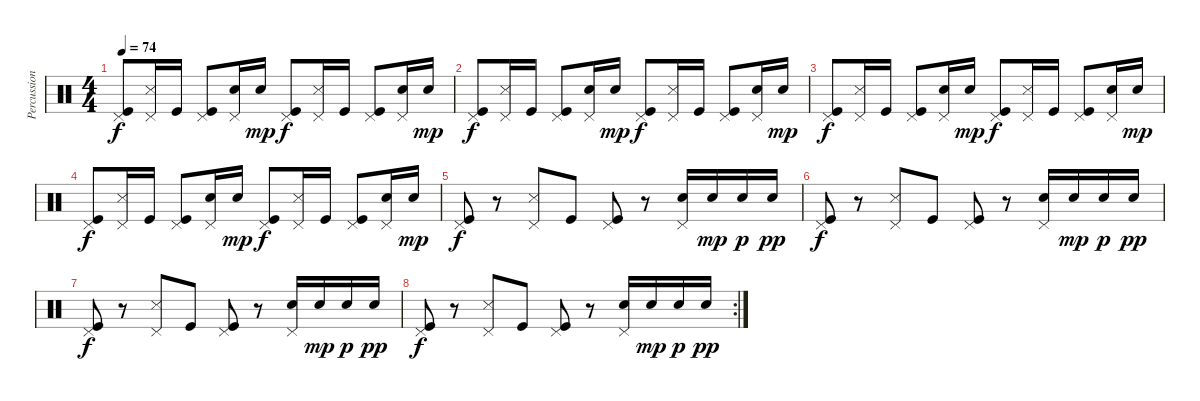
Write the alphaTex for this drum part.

\track ("Percussions" "Percussion") {instrument percussion}
\staff {score}
\articulation defaults
\ts (4 4)
\tempo 74
\clef neutral
\ks c
("Kick (hit)" "Pedal Hi-Hat (hit)").8{dy f} ("Pedal Hi-Hat (hit)" "Snare (side stick) 3").16 "Kick (hit)".16 ("Kick (hit)" "Pedal Hi-Hat (hit)").8 ("Pedal Hi-Hat (hit)" "Electric Snare (hit)").16 "Electric Snare (hit)".16{dy mp} ("Kick (hit)" "Pedal Hi-Hat (hit)").8{dy f} ("Pedal Hi-Hat (hit)" "Snare (side stick) 3").16 "Kick (hit)".16 ("Kick (hit)" "Pedal Hi-Hat (hit)").8 ("Pedal Hi-Hat (hit)" "Electric Snare (hit)").16 "Electric Snare (hit)".16{dy mp} |
("Kick (hit)" "Pedal Hi-Hat (hit)").8{dy f} ("Pedal Hi-Hat (hit)" "Snare (side stick) 3").16 "Kick (hit)".16 ("Kick (hit)" "Pedal Hi-Hat (hit)").8 ("Pedal Hi-Hat (hit)" "Electric Snare (hit)").16 "Electric Snare (hit)".16{dy mp} ("Kick (hit)" "Pedal Hi-Hat (hit)").8{dy f} ("Pedal Hi-Hat (hit)" "Snare (side stick) 3").16 "Kick (hit)".16 ("Kick (hit)" "Pedal Hi-Hat (hit)").8 ("Pedal Hi-Hat (hit)" "Electric Snare (hit)").16 "Electric Snare (hit)".16{dy mp} |
("Kick (hit)" "Pedal Hi-Hat (hit)").8{dy f} ("Pedal Hi-Hat (hit)" "Snare (side stick) 3").16 "Kick (hit)".16 ("Kick (hit)" "Pedal Hi-Hat (hit)").8 ("Pedal Hi-Hat (hit)" "Electric Snare (hit)").16 "Electric Snare (hit)".16{dy mp} ("Kick (hit)" "Pedal Hi-Hat (hit)").8{dy f} ("Pedal Hi-Hat (hit)" "Snare (side stick) 3").16 "Kick (hit)".16 ("Kick (hit)" "Pedal Hi-Hat (hit)").8 ("Pedal Hi-Hat (hit)" "Electric Snare (hit)").16 "Electric Snare (hit)".16{dy mp} |
("Kick (hit)" "Pedal Hi-Hat (hit)").8{dy f} ("Pedal Hi-Hat (hit)" "Snare (side stick) 3").16 "Kick (hit)".16 ("Kick (hit)" "Pedal Hi-Hat (hit)").8 ("Pedal Hi-Hat (hit)" "Electric Snare (hit)").16 "Electric Snare (hit)".16{dy mp} ("Kick (hit)" "Pedal Hi-Hat (hit)").8{dy f} ("Pedal Hi-Hat (hit)" "Snare (side stick) 3").16 "Kick (hit)".16 ("Kick (hit)" "Pedal Hi-Hat (hit)").8 ("Pedal Hi-Hat (hit)" "Electric Snare (hit)").16 "Electric Snare (hit)".16{dy mp} |
("Kick (hit)" "Pedal Hi-Hat (hit)").8{dy f} r.8 ("Pedal Hi-Hat (hit)" "Snare (side stick) 3").8 "Kick (hit)".8 ("Kick (hit)" "Pedal Hi-Hat (hit)").8 r.8 ("Pedal Hi-Hat (hit)" "Electric Snare (hit)").16 "Electric Snare (hit)".16{dy mp} "Electric Snare (hit)".16{dy p} "Electric Snare (hit)".16{dy pp} |
("Kick (hit)" "Pedal Hi-Hat (hit)").8{dy f} r.8 ("Pedal Hi-Hat (hit)" "Snare (side stick) 3").8 "Kick (hit)".8 ("Kick (hit)" "Pedal Hi-Hat (hit)").8 r.8 ("Pedal Hi-Hat (hit)" "Electric Snare (hit)").16 "Electric Snare (hit)".16{dy mp} "Electric Snare (hit)".16{dy p} "Electric Snare (hit)".16{dy pp} |
("Kick (hit)" "Pedal Hi-Hat (hit)").8{dy f} r.8 ("Pedal Hi-Hat (hit)" "Snare (side stick) 3").8 "Kick (hit)".8 ("Kick (hit)" "Pedal Hi-Hat (hit)").8 r.8 ("Pedal Hi-Hat (hit)" "Electric Snare (hit)").16 "Electric Snare (hit)".16{dy mp} "Electric Snare (hit)".16{dy p} "Electric Snare (hit)".16{dy pp} |
\rc 2
("Kick (hit)" "Pedal Hi-Hat (hit)").8{dy f} r.8 ("Pedal Hi-Hat (hit)" "Snare (side stick) 3").8 "Kick (hit)".8 ("Kick (hit)" "Pedal Hi-Hat (hit)").8 r.8 ("Pedal Hi-Hat (hit)" "Electric Snare (hit)").16 "Electric Snare (hit)".16{dy mp} "Electric Snare (hit)".16{dy p} "Electric Snare (hit)".16{dy pp}
